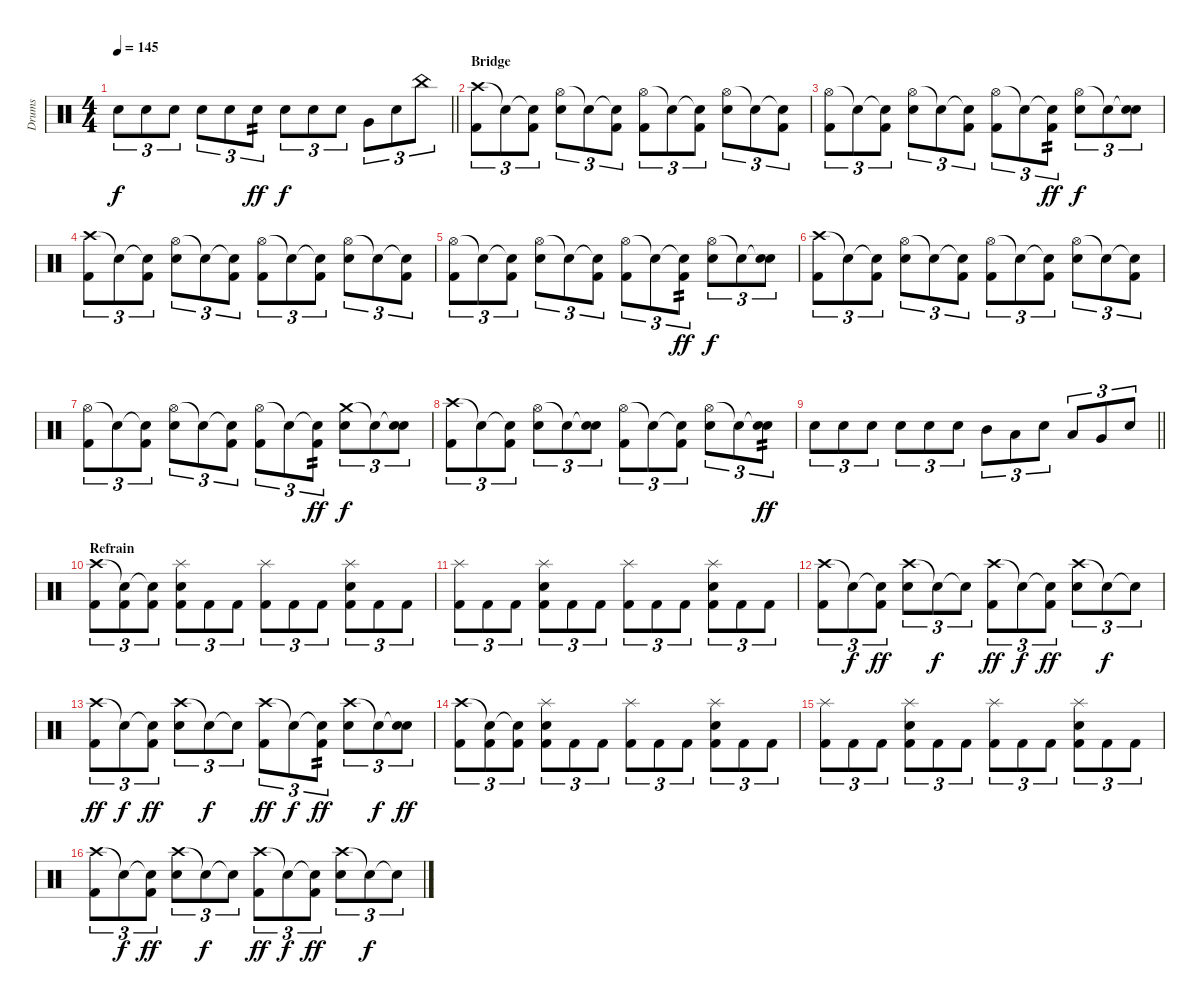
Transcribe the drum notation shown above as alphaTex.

\track ("Drums" "Drums") {instrument percussion}
\staff {score}
\articulation defaults
\ts (4 4)
\tempo 145
\clef neutral
\barLineRight lightlight
\ks c "Electric Snare (hit)".8{tu (3 2) dy f} "Electric Snare (hit)".8{tu (3 2)} "Electric Snare (hit)".8{tu (3 2)} "Electric Snare (hit)".8{tu (3 2)} "Electric Snare (hit)".8{tu (3 2)} "Electric Snare (hit)".8{tu (3 2) tp 2 dy ff} "Electric Snare (hit)".8{tu (3 2) dy f} "Electric Snare (hit)".8{tu (3 2)} "Electric Snare (hit)".8{tu (3 2)} "Very Low Tom (hit)".8{tu (3 2)} "Electric Snare (hit)".8{tu (3 2)} "China (hit)".8{tu (3 2)}
|
\section ("" "Bridge")
("Crash high (hit)" "Kick (hit) 2").8{tu (3 2)} "Snare (hit)"{t}.8{tu (3 2)} ("Snare (hit)"{t} "Kick (hit) 2").8{tu (3 2)} ("Hi-Hat (open)" "Snare (hit) 2").8{tu (3 2)} "Snare (hit)"{t}.8{tu (3 2)} ("Snare (hit)"{t} "Kick (hit) 2").8{tu (3 2)} ("Hi-Hat (open)" "Kick (hit) 2").8{tu (3 2)} "Snare (hit)"{t}.8{tu (3 2)} ("Snare (hit)"{t} "Kick (hit) 2").8{tu (3 2)} ("Hi-Hat (open)" "Snare (hit) 2").8{tu (3 2)} "Snare (hit)"{t}.8{tu (3 2)} ("Snare (hit)"{t} "Kick (hit) 2").8{tu (3 2)} |
("Hi-Hat (open)" "Kick (hit) 2").8{tu (3 2)} "Snare (hit)"{t}.8{tu (3 2)} ("Snare (hit)"{t} "Kick (hit) 2").8{tu (3 2)} ("Hi-Hat (open)" "Snare (hit) 2").8{tu (3 2)} "Snare (hit)"{t}.8{tu (3 2)} ("Snare (hit)"{t} "Kick (hit) 2").8{tu (3 2)} ("Hi-Hat (open)" "Kick (hit) 2").8{tu (3 2)} "Snare (hit)"{t}.8{tu (3 2)} ("Snare (hit)"{t} "Kick (hit) 2").8{tu (3 2) tp 2 dy ff} ("Hi-Hat (open)" "Snare (hit) 2").8{tu (3 2) dy f} "Snare (hit)"{t}.8{tu (3 2)} ("Snare (hit)"{t} "Snare (hit) 2").8{tu (3 2)} |
("Crash high (hit)" "Kick (hit) 2").8{tu (3 2)} "Snare (hit)"{t}.8{tu (3 2)} ("Snare (hit)"{t} "Kick (hit) 2").8{tu (3 2)} ("Hi-Hat (open)" "Snare (hit) 2").8{tu (3 2)} "Snare (hit)"{t}.8{tu (3 2)} ("Snare (hit)"{t} "Kick (hit) 2").8{tu (3 2)} ("Hi-Hat (open)" "Kick (hit) 2").8{tu (3 2)} "Snare (hit)"{t}.8{tu (3 2)} ("Snare (hit)"{t} "Kick (hit) 2").8{tu (3 2)} ("Hi-Hat (open)" "Snare (hit) 2").8{tu (3 2)} "Snare (hit)"{t}.8{tu (3 2)} ("Snare (hit)"{t} "Kick (hit) 2").8{tu (3 2)} |
("Hi-Hat (open)" "Kick (hit) 2").8{tu (3 2)} "Snare (hit)"{t}.8{tu (3 2)} ("Snare (hit)"{t} "Kick (hit) 2").8{tu (3 2)} ("Hi-Hat (open)" "Snare (hit) 2").8{tu (3 2)} "Snare (hit)"{t}.8{tu (3 2)} ("Snare (hit)"{t} "Kick (hit) 2").8{tu (3 2)} ("Hi-Hat (open)" "Kick (hit) 2").8{tu (3 2)} "Snare (hit)"{t}.8{tu (3 2)} ("Snare (hit)"{t} "Kick (hit) 2").8{tu (3 2) tp 2 dy ff} ("Hi-Hat (open)" "Snare (hit) 2").8{tu (3 2) dy f} "Snare (hit)"{t}.8{tu (3 2)} ("Snare (hit)"{t} "Snare (hit) 2").8{tu (3 2)} |
("Crash high (hit)" "Kick (hit) 2").8{tu (3 2)} "Snare (hit)"{t}.8{tu (3 2)} ("Snare (hit)"{t} "Kick (hit) 2").8{tu (3 2)} ("Hi-Hat (open)" "Snare (hit) 2").8{tu (3 2)} "Snare (hit)"{t}.8{tu (3 2)} ("Snare (hit)"{t} "Kick (hit) 2").8{tu (3 2)} ("Hi-Hat (open)" "Kick (hit) 2").8{tu (3 2)} "Snare (hit)"{t}.8{tu (3 2)} ("Snare (hit)"{t} "Kick (hit) 2").8{tu (3 2)} ("Hi-Hat (open)" "Snare (hit) 2").8{tu (3 2)} "Snare (hit)"{t}.8{tu (3 2)} ("Snare (hit)"{t} "Kick (hit) 2").8{tu (3 2)} |
("Hi-Hat (open)" "Kick (hit) 2").8{tu (3 2)} "Snare (hit)"{t}.8{tu (3 2)} ("Snare (hit)"{t} "Kick (hit) 2").8{tu (3 2)} ("Hi-Hat (open)" "Snare (hit) 2").8{tu (3 2)} "Snare (hit)"{t}.8{tu (3 2)} ("Snare (hit)"{t} "Kick (hit) 2").8{tu (3 2)} ("Hi-Hat (open)" "Kick (hit) 2").8{tu (3 2)} "Snare (hit)"{t}.8{tu (3 2)} ("Snare (hit)"{t} "Kick (hit) 2").8{tu (3 2) tp 2 dy ff} ("Crash medium (hit)" "Snare (hit) 2").8{tu (3 2) dy f} "Snare (hit)"{t}.8{tu (3 2)} ("Snare (hit)"{t} "Snare (hit) 2").8{tu (3 2)} |
("Crash high (hit)" "Kick (hit) 2").8{tu (3 2)} "Snare (hit)"{t}.8{tu (3 2)} ("Snare (hit)"{t} "Kick (hit) 2").8{tu (3 2)} ("Hi-Hat (open)" "Snare (hit) 2").8{tu (3 2)} "Snare (hit)"{t}.8{tu (3 2)} ("Snare (hit)"{t} "Snare (hit) 2").8{tu (3 2)} ("Hi-Hat (open)" "Kick (hit) 2").8{tu (3 2)} "Snare (hit)"{t}.8{tu (3 2)} ("Snare (hit)"{t} "Kick (hit) 2").8{tu (3 2)} ("Hi-Hat (open)" "Snare (hit) 2").8{tu (3 2)} "Snare (hit)"{t}.8{tu (3 2)} ("Snare (hit)"{t} "Electric Snare (hit)").8{tu (3 2) tp 2 dy ff} |
\barLineRight lightlight "Electric Snare (hit)".8{tu (3 2)} "Electric Snare (hit)".8{tu (3 2)} "Electric Snare (hit)".8{tu (3 2)} "Electric Snare (hit)".8{tu (3 2)} "Electric Snare (hit)".8{tu (3 2)} "Electric Snare (hit)".8{tu (3 2)} "Mid Tom (hit)".8{tu (3 2)} "Low Tom (hit)".8{tu (3 2)} "Electric Snare (hit)".8{tu (3 2)} "Low Tom (hit)".8{tu (3 2)} "Very Low Tom (hit)".8{tu (3 2)} "Electric Snare (hit)".8{tu (3 2)}
|
\section ("" "Refrain")
("Crash high (hit)" "Kick (hit) 2").8{tu (3 2)} ("Snare (hit)"{t} "Kick (hit) 2").8{tu (3 2)} ("Snare (hit)"{t} "Kick (hit) 2").8{tu (3 2)} ("Splash (hit)" "Snare (hit) 2" "Kick (hit) 2").8{tu (3 2)} "Kick (hit) 2".8{tu (3 2)} "Kick (hit) 2".8{tu (3 2)} ("Splash (hit)" "Kick (hit) 2").8{tu (3 2)} "Kick (hit) 2".8{tu (3 2)} "Kick (hit) 2".8{tu (3 2)} ("Splash (hit)" "Kick (hit) 2" "Snare (hit) 2").8{tu (3 2)} "Kick (hit) 2".8{tu (3 2)} "Kick (hit) 2".8{tu (3 2)} |
("Splash (hit)" "Kick (hit) 2").8{tu (3 2)} "Kick (hit) 2".8{tu (3 2)} "Kick (hit) 2".8{tu (3 2)} ("Splash (hit)" "Snare (hit) 2" "Kick (hit) 2").8{tu (3 2)} "Kick (hit) 2".8{tu (3 2)} "Kick (hit) 2".8{tu (3 2)} ("Splash (hit)" "Kick (hit) 2").8{tu (3 2)} "Kick (hit) 2".8{tu (3 2)} "Kick (hit) 2".8{tu (3 2)} ("Splash (hit)" "Kick (hit) 2" "Snare (hit) 2").8{tu (3 2)} "Kick (hit) 2".8{tu (3 2)} "Kick (hit) 2".8{tu (3 2)} |
("Crash high (hit)" "Kick (hit) 2").8{tu (3 2)} "Snare (hit)"{t}.8{tu (3 2) dy f} ("Snare (hit)"{t} "Kick (hit) 2").8{tu (3 2) dy ff} ("Crash high (hit)" "Snare (hit) 2").8{tu (3 2)} "Snare (hit)"{t}.8{tu (3 2) dy f} "Snare (hit)"{t}.8{tu (3 2)} ("Crash high (hit)" "Kick (hit) 2").8{tu (3 2) dy ff} "Snare (hit)"{t}.8{tu (3 2) dy f} ("Snare (hit)"{t} "Kick (hit) 2").8{tu (3 2) dy ff} ("Crash high (hit)" "Snare (hit) 2").8{tu (3 2)} "Snare (hit)"{t}.8{tu (3 2) dy f} "Snare (hit)"{t}.8{tu (3 2)} |
("Crash high (hit)" "Kick (hit) 2").8{tu (3 2) dy ff} "Snare (hit)"{t}.8{tu (3 2) dy f} ("Snare (hit)"{t} "Kick (hit) 2").8{tu (3 2) dy ff} ("Crash high (hit)" "Snare (hit) 2").8{tu (3 2)} "Snare (hit)"{t}.8{tu (3 2) dy f} "Snare (hit)"{t}.8{tu (3 2)} ("Crash high (hit)" "Kick (hit) 2").8{tu (3 2) dy ff} "Snare (hit)"{t}.8{tu (3 2) dy f} ("Snare (hit)"{t} "Kick (hit) 2").8{tu (3 2) tp 2 dy ff} ("Crash high (hit)" "Snare (hit) 2").8{tu (3 2)} "Snare (hit)"{t}.8{tu (3 2) dy f} ("Snare (hit)"{t} "Snare (hit) 2").8{tu (3 2) dy ff} |
("Crash high (hit)" "Kick (hit) 2").8{tu (3 2)} ("Snare (hit)"{t} "Kick (hit) 2").8{tu (3 2)} ("Snare (hit)"{t} "Kick (hit) 2").8{tu (3 2)} ("Splash (hit)" "Snare (hit) 2" "Kick (hit) 2").8{tu (3 2)} "Kick (hit) 2".8{tu (3 2)} "Kick (hit) 2".8{tu (3 2)} ("Splash (hit)" "Kick (hit) 2").8{tu (3 2)} "Kick (hit) 2".8{tu (3 2)} "Kick (hit) 2".8{tu (3 2)} ("Splash (hit)" "Kick (hit) 2" "Snare (hit) 2").8{tu (3 2)} "Kick (hit) 2".8{tu (3 2)} "Kick (hit) 2".8{tu (3 2)} |
("Splash (hit)" "Kick (hit) 2").8{tu (3 2)} "Kick (hit) 2".8{tu (3 2)} "Kick (hit) 2".8{tu (3 2)} ("Splash (hit)" "Snare (hit) 2" "Kick (hit) 2").8{tu (3 2)} "Kick (hit) 2".8{tu (3 2)} "Kick (hit) 2".8{tu (3 2)} ("Splash (hit)" "Kick (hit) 2").8{tu (3 2)} "Kick (hit) 2".8{tu (3 2)} "Kick (hit) 2".8{tu (3 2)} ("Splash (hit)" "Kick (hit) 2" "Snare (hit) 2").8{tu (3 2)} "Kick (hit) 2".8{tu (3 2)} "Kick (hit) 2".8{tu (3 2)} |
("Crash high (hit)" "Kick (hit) 2").8{tu (3 2)} "Snare (hit)"{t}.8{tu (3 2) dy f} ("Snare (hit)"{t} "Kick (hit) 2").8{tu (3 2) dy ff} ("Crash high (hit)" "Snare (hit) 2").8{tu (3 2)} "Snare (hit)"{t}.8{tu (3 2) dy f} "Snare (hit)"{t}.8{tu (3 2)} ("Crash high (hit)" "Kick (hit) 2").8{tu (3 2) dy ff} "Snare (hit)"{t}.8{tu (3 2) dy f} ("Snare (hit)"{t} "Kick (hit) 2").8{tu (3 2) dy ff} ("Crash high (hit)" "Snare (hit) 2").8{tu (3 2)} "Snare (hit)"{t}.8{tu (3 2) dy f} "Snare (hit)"{t}.8{tu (3 2)}
